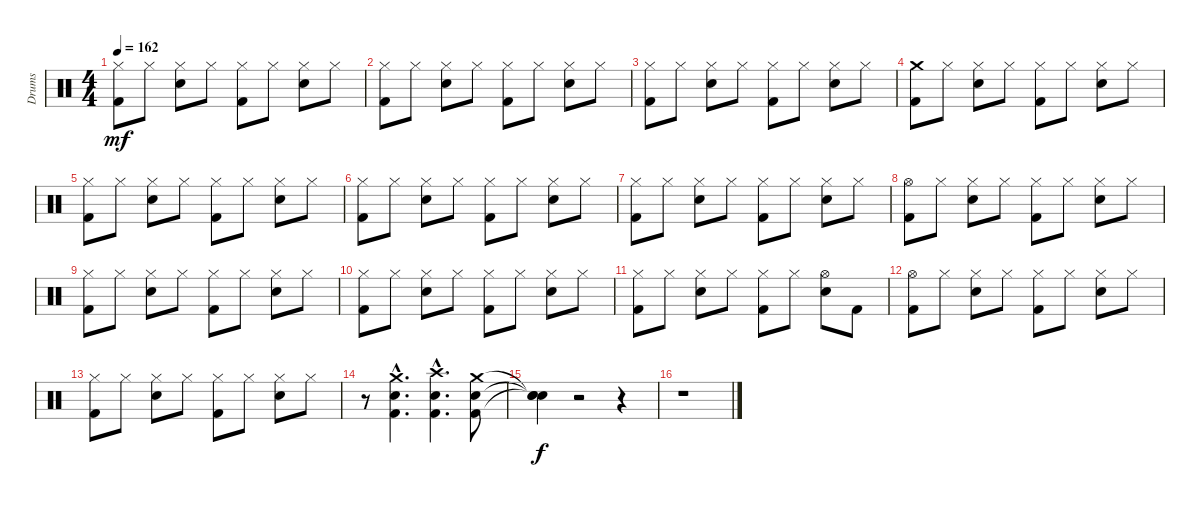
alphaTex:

\track ("Drums" "Drums") {instrument percussion}
\staff {score}
\articulation defaults
\ts (4 4)
\tempo 162
\clef neutral
\ks c
("Hi-Hat (closed)" "Kick (hit) 2").8{dy mf} "Hi-Hat (closed)".8 ("Hi-Hat (closed)" "Snare (hit) 2").8 "Hi-Hat (closed)".8 ("Hi-Hat (closed)" "Kick (hit) 2").8 "Hi-Hat (closed)".8 ("Hi-Hat (closed)" "Snare (hit) 2").8 "Hi-Hat (closed)".8 |
("Hi-Hat (closed)" "Kick (hit) 2").8 "Hi-Hat (closed)".8 ("Hi-Hat (closed)" "Snare (hit) 2").8 "Hi-Hat (closed)".8 ("Hi-Hat (closed)" "Kick (hit) 2").8 "Hi-Hat (closed)".8 ("Hi-Hat (closed)" "Snare (hit) 2").8 "Hi-Hat (closed)".8 |
("Hi-Hat (closed)" "Kick (hit) 2").8 "Hi-Hat (closed)".8 ("Hi-Hat (closed)" "Snare (hit) 2").8 "Hi-Hat (closed)".8 ("Hi-Hat (closed)" "Kick (hit) 2").8 "Hi-Hat (closed)".8 ("Hi-Hat (closed)" "Snare (hit) 2").8 "Hi-Hat (closed)".8 |
("Crash medium (hit)" "Kick (hit) 2").8 "Hi-Hat (closed)".8 ("Hi-Hat (closed)" "Snare (hit) 2").8 "Hi-Hat (closed)".8 ("Hi-Hat (closed)" "Kick (hit) 2").8 "Hi-Hat (closed)".8 ("Hi-Hat (closed)" "Snare (hit) 2").8 "Hi-Hat (closed)".8 |
("Hi-Hat (closed)" "Kick (hit) 2").8 "Hi-Hat (closed)".8 ("Hi-Hat (closed)" "Snare (hit) 2").8 "Hi-Hat (closed)".8 ("Hi-Hat (closed)" "Kick (hit) 2").8 "Hi-Hat (closed)".8 ("Hi-Hat (closed)" "Snare (hit) 2").8 "Hi-Hat (closed)".8 |
("Hi-Hat (closed)" "Kick (hit) 2").8 "Hi-Hat (closed)".8 ("Hi-Hat (closed)" "Snare (hit) 2").8 "Hi-Hat (closed)".8 ("Hi-Hat (closed)" "Kick (hit) 2").8 "Hi-Hat (closed)".8 ("Hi-Hat (closed)" "Snare (hit) 2").8 "Hi-Hat (closed)".8 |
("Hi-Hat (closed)" "Kick (hit) 2").8 "Hi-Hat (closed)".8 ("Hi-Hat (closed)" "Snare (hit) 2").8 "Hi-Hat (closed)".8 ("Hi-Hat (closed)" "Kick (hit) 2").8 "Hi-Hat (closed)".8 ("Hi-Hat (closed)" "Snare (hit) 2").8 "Hi-Hat (closed)".8 |
("Hi-Hat (open)" "Kick (hit) 2").8 "Hi-Hat (closed)".8 ("Hi-Hat (closed)" "Snare (hit) 2").8 "Hi-Hat (closed)".8 ("Hi-Hat (closed)" "Kick (hit) 2").8 "Hi-Hat (closed)".8 ("Hi-Hat (closed)" "Snare (hit) 2").8 "Hi-Hat (closed)".8 |
("Hi-Hat (closed)" "Kick (hit) 2").8 "Hi-Hat (closed)".8 ("Hi-Hat (closed)" "Snare (hit) 2").8 "Hi-Hat (closed)".8 ("Hi-Hat (closed)" "Kick (hit) 2").8 "Hi-Hat (closed)".8 ("Hi-Hat (closed)" "Snare (hit) 2").8 "Hi-Hat (closed)".8 |
("Hi-Hat (closed)" "Kick (hit) 2").8 "Hi-Hat (closed)".8 ("Hi-Hat (closed)" "Snare (hit) 2").8 "Hi-Hat (closed)".8 ("Hi-Hat (closed)" "Kick (hit) 2").8 "Hi-Hat (closed)".8 ("Hi-Hat (closed)" "Snare (hit) 2").8 "Hi-Hat (closed)".8 |
("Hi-Hat (closed)" "Kick (hit) 2").8 "Hi-Hat (closed)".8 ("Hi-Hat (closed)" "Snare (hit) 2").8 "Hi-Hat (closed)".8 ("Hi-Hat (closed)" "Kick (hit) 2").8 "Hi-Hat (closed)".8 ("Hi-Hat (open)" "Snare (hit) 2").8 "Kick (hit) 2".8 |
("Hi-Hat (open)" "Kick (hit) 2").8 "Hi-Hat (closed)".8 ("Hi-Hat (closed)" "Snare (hit) 2").8 "Hi-Hat (closed)".8 ("Hi-Hat (closed)" "Kick (hit) 2").8 "Hi-Hat (closed)".8 ("Hi-Hat (closed)" "Snare (hit) 2").8 "Hi-Hat (closed)".8 |
("Hi-Hat (closed)" "Kick (hit) 2").8 "Hi-Hat (closed)".8 ("Hi-Hat (closed)" "Snare (hit) 2").8 "Hi-Hat (closed)".8 ("Hi-Hat (closed)" "Kick (hit) 2").8 "Hi-Hat (closed)".8 ("Hi-Hat (closed)" "Snare (hit) 2").8 "Hi-Hat (closed)".8 |
r.8 ("Crash medium (hit)"{hac} "Kick (hit) 2"{hac} "Snare (hit) 2"{hac}).4{d} ("Crash high (hit)"{hac} "Kick (hit) 2"{hac} "Snare (hit) 2"{hac}).4{d} ("Crash medium (hit)" "Kick (hit) 2" "Snare (hit) 2").8 |
("Snare (hit)"{t} "Snare (hit)"{t} "Snare (hit)"{t}).4{dy f} r.2 r.4 |
r.1
